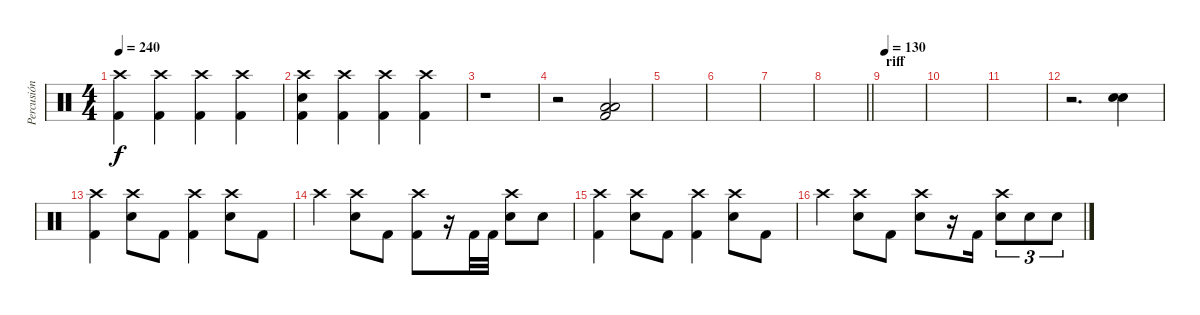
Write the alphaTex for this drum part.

\track ("Percusión" "Percusión") {instrument percussion}
\staff {score}
\articulation defaults
\ts (4 4)
\tempo 240
\clef neutral
\ks c
("Crash high (hit)" "Kick (hit) 2").4{dy f} ("Crash high (hit)" "Kick (hit) 2").4 ("Crash high (hit)" "Kick (hit) 2").4 ("Crash high (hit)" "Kick (hit) 2").4 |
("Crash high (hit)" "Electric Snare (hit)" "Kick (hit) 2").4 ("Crash high (hit)" "Kick (hit) 2").4 ("Crash high (hit)" "Kick (hit) 2").4 ("Crash high (hit)" "Kick (hit) 2").4 |
r.1 |
r.2 ("Low Tom (hit)" "Low Floor Tom (hit)" "Kick (hit) 2").2 |
|
|
|
\barLineRight lightlight
|
\section ("" "riff")
\tempo 130
|
|
|
r.2{d} ("Electric Snare (hit)" "Electric Snare (hit)").4 |
("Crash high (hit)" "Kick (hit) 2").4 ("Crash high (hit)" "Electric Snare (hit)").8 "Kick (hit) 2".8 ("Crash high (hit)" "Kick (hit) 2").4 ("Crash high (hit)" "Electric Snare (hit)").8 "Kick (hit) 2".8 |
"Crash high (hit)".4 ("Crash high (hit)" "Electric Snare (hit)").8 "Kick (hit) 2".8 ("Crash high (hit)" "Kick (hit) 2").8 r.16 "Kick (hit) 2".32 "Kick (hit) 2".32 ("Crash high (hit)" "Electric Snare (hit)").8 "Electric Snare (hit)".8 |
("Crash high (hit)" "Kick (hit) 2").4 ("Crash high (hit)" "Electric Snare (hit)").8 "Kick (hit) 2".8 ("Crash high (hit)" "Kick (hit) 2").4 ("Crash high (hit)" "Electric Snare (hit)").8 "Kick (hit) 2".8 |
"Crash high (hit)".4 ("Crash high (hit)" "Electric Snare (hit)").8 "Kick (hit) 2".8 ("Crash high (hit)" "Electric Snare (hit)").8 r.16 "Kick (hit) 2".16 ("Crash high (hit)" "Electric Snare (hit)").8{tu (3 2)} "Electric Snare (hit)".8{tu (3 2)} "Electric Snare (hit)".8{tu (3 2)}
